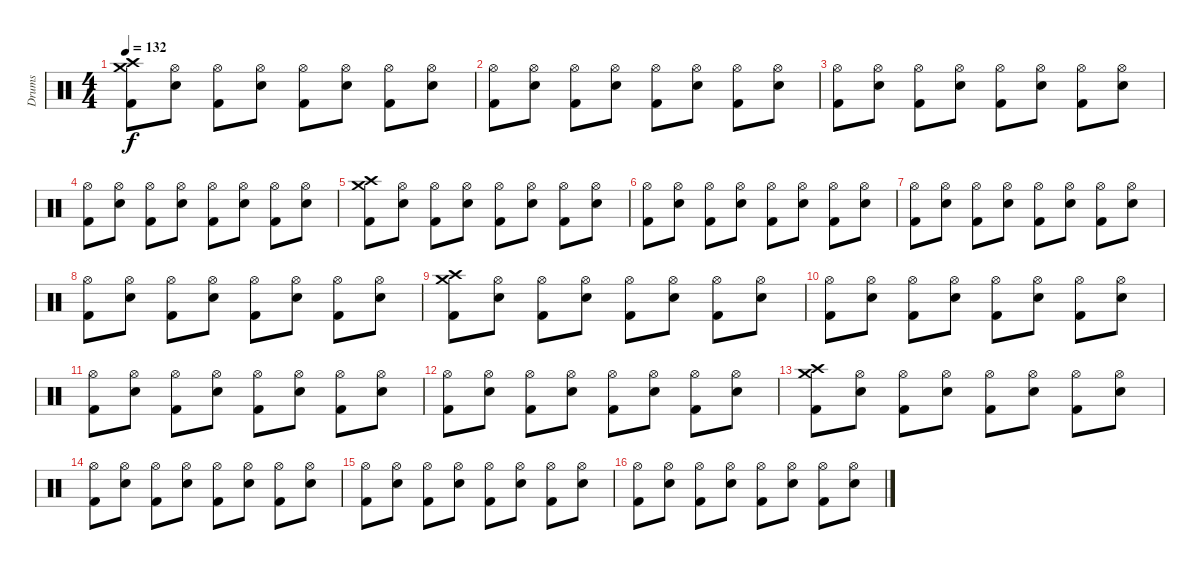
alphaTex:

\track ("Drums" "Drums") {instrument percussion}
\staff {score}
\articulation defaults
\ts (4 4)
\tempo 132
\clef neutral
\ks c
("Crash high (hit)" "Crash medium (hit)" "Kick (hit) 2").8{dy f} ("Hi-Hat (open)" "Electric Snare (hit)").8 ("Hi-Hat (open)" "Kick (hit) 2").8 ("Hi-Hat (open)" "Electric Snare (hit)").8 ("Hi-Hat (open)" "Kick (hit) 2").8 ("Hi-Hat (open)" "Electric Snare (hit)").8 ("Hi-Hat (open)" "Kick (hit) 2").8 ("Hi-Hat (open)" "Electric Snare (hit)").8 |
("Hi-Hat (open)" "Kick (hit) 2").8 ("Hi-Hat (open)" "Electric Snare (hit)").8 ("Hi-Hat (open)" "Kick (hit) 2").8 ("Hi-Hat (open)" "Electric Snare (hit)").8 ("Hi-Hat (open)" "Kick (hit) 2").8 ("Hi-Hat (open)" "Electric Snare (hit)").8 ("Hi-Hat (open)" "Kick (hit) 2").8 ("Hi-Hat (open)" "Electric Snare (hit)").8 |
("Hi-Hat (open)" "Kick (hit) 2").8 ("Hi-Hat (open)" "Electric Snare (hit)").8 ("Hi-Hat (open)" "Kick (hit) 2").8 ("Hi-Hat (open)" "Electric Snare (hit)").8 ("Hi-Hat (open)" "Kick (hit) 2").8 ("Hi-Hat (open)" "Electric Snare (hit)").8 ("Hi-Hat (open)" "Kick (hit) 2").8 ("Hi-Hat (open)" "Electric Snare (hit)").8 |
("Hi-Hat (open)" "Kick (hit) 2").8 ("Hi-Hat (open)" "Electric Snare (hit)").8 ("Hi-Hat (open)" "Kick (hit) 2").8 ("Hi-Hat (open)" "Electric Snare (hit)").8 ("Hi-Hat (open)" "Kick (hit) 2").8 ("Hi-Hat (open)" "Electric Snare (hit)").8 ("Hi-Hat (open)" "Kick (hit) 2").8 ("Hi-Hat (open)" "Electric Snare (hit)").8 |
("Crash high (hit)" "Crash medium (hit)" "Kick (hit) 2").8 ("Hi-Hat (open)" "Electric Snare (hit)").8 ("Hi-Hat (open)" "Kick (hit) 2").8 ("Hi-Hat (open)" "Electric Snare (hit)").8 ("Hi-Hat (open)" "Kick (hit) 2").8 ("Hi-Hat (open)" "Electric Snare (hit)").8 ("Hi-Hat (open)" "Kick (hit) 2").8 ("Hi-Hat (open)" "Electric Snare (hit)").8 |
("Hi-Hat (open)" "Kick (hit) 2").8 ("Hi-Hat (open)" "Electric Snare (hit)").8 ("Hi-Hat (open)" "Kick (hit) 2").8 ("Hi-Hat (open)" "Electric Snare (hit)").8 ("Hi-Hat (open)" "Kick (hit) 2").8 ("Hi-Hat (open)" "Electric Snare (hit)").8 ("Hi-Hat (open)" "Kick (hit) 2").8 ("Hi-Hat (open)" "Electric Snare (hit)").8 |
("Hi-Hat (open)" "Kick (hit) 2").8 ("Hi-Hat (open)" "Electric Snare (hit)").8 ("Hi-Hat (open)" "Kick (hit) 2").8 ("Hi-Hat (open)" "Electric Snare (hit)").8 ("Hi-Hat (open)" "Kick (hit) 2").8 ("Hi-Hat (open)" "Electric Snare (hit)").8 ("Hi-Hat (open)" "Kick (hit) 2").8 ("Hi-Hat (open)" "Electric Snare (hit)").8 |
("Hi-Hat (open)" "Kick (hit) 2").8 ("Hi-Hat (open)" "Electric Snare (hit)").8 ("Hi-Hat (open)" "Kick (hit) 2").8 ("Hi-Hat (open)" "Electric Snare (hit)").8 ("Hi-Hat (open)" "Kick (hit) 2").8 ("Hi-Hat (open)" "Electric Snare (hit)").8 ("Hi-Hat (open)" "Kick (hit) 2").8 ("Hi-Hat (open)" "Electric Snare (hit)").8 |
("Crash high (hit)" "Crash medium (hit)" "Kick (hit) 2").8 ("Hi-Hat (open)" "Electric Snare (hit)").8 ("Hi-Hat (open)" "Kick (hit) 2").8 ("Hi-Hat (open)" "Electric Snare (hit)").8 ("Hi-Hat (open)" "Kick (hit) 2").8 ("Hi-Hat (open)" "Electric Snare (hit)").8 ("Hi-Hat (open)" "Kick (hit) 2").8 ("Hi-Hat (open)" "Electric Snare (hit)").8 |
("Hi-Hat (open)" "Kick (hit) 2").8 ("Hi-Hat (open)" "Electric Snare (hit)").8 ("Hi-Hat (open)" "Kick (hit) 2").8 ("Hi-Hat (open)" "Electric Snare (hit)").8 ("Hi-Hat (open)" "Kick (hit) 2").8 ("Hi-Hat (open)" "Electric Snare (hit)").8 ("Hi-Hat (open)" "Kick (hit) 2").8 ("Hi-Hat (open)" "Electric Snare (hit)").8 |
("Hi-Hat (open)" "Kick (hit) 2").8 ("Hi-Hat (open)" "Electric Snare (hit)").8 ("Hi-Hat (open)" "Kick (hit) 2").8 ("Hi-Hat (open)" "Electric Snare (hit)").8 ("Hi-Hat (open)" "Kick (hit) 2").8 ("Hi-Hat (open)" "Electric Snare (hit)").8 ("Hi-Hat (open)" "Kick (hit) 2").8 ("Hi-Hat (open)" "Electric Snare (hit)").8 |
("Hi-Hat (open)" "Kick (hit) 2").8 ("Hi-Hat (open)" "Electric Snare (hit)").8 ("Hi-Hat (open)" "Kick (hit) 2").8 ("Hi-Hat (open)" "Electric Snare (hit)").8 ("Hi-Hat (open)" "Kick (hit) 2").8 ("Hi-Hat (open)" "Electric Snare (hit)").8 ("Hi-Hat (open)" "Kick (hit) 2").8 ("Hi-Hat (open)" "Electric Snare (hit)").8 |
("Crash high (hit)" "Crash medium (hit)" "Kick (hit) 2").8 ("Hi-Hat (open)" "Electric Snare (hit)").8 ("Hi-Hat (open)" "Kick (hit) 2").8 ("Hi-Hat (open)" "Electric Snare (hit)").8 ("Hi-Hat (open)" "Kick (hit) 2").8 ("Hi-Hat (open)" "Electric Snare (hit)").8 ("Hi-Hat (open)" "Kick (hit) 2").8 ("Hi-Hat (open)" "Electric Snare (hit)").8 |
("Hi-Hat (open)" "Kick (hit) 2").8 ("Hi-Hat (open)" "Electric Snare (hit)").8 ("Hi-Hat (open)" "Kick (hit) 2").8 ("Hi-Hat (open)" "Electric Snare (hit)").8 ("Hi-Hat (open)" "Kick (hit) 2").8 ("Hi-Hat (open)" "Electric Snare (hit)").8 ("Hi-Hat (open)" "Kick (hit) 2").8 ("Hi-Hat (open)" "Electric Snare (hit)").8 |
("Hi-Hat (open)" "Kick (hit) 2").8 ("Hi-Hat (open)" "Electric Snare (hit)").8 ("Hi-Hat (open)" "Kick (hit) 2").8 ("Hi-Hat (open)" "Electric Snare (hit)").8 ("Hi-Hat (open)" "Kick (hit) 2").8 ("Hi-Hat (open)" "Electric Snare (hit)").8 ("Hi-Hat (open)" "Kick (hit) 2").8 ("Hi-Hat (open)" "Electric Snare (hit)").8 |
("Hi-Hat (open)" "Kick (hit) 2").8 ("Hi-Hat (open)" "Electric Snare (hit)").8 ("Hi-Hat (open)" "Kick (hit) 2").8 ("Hi-Hat (open)" "Electric Snare (hit)").8 ("Hi-Hat (open)" "Kick (hit) 2").8 ("Hi-Hat (open)" "Electric Snare (hit)").8 ("Hi-Hat (open)" "Kick (hit) 2").8 ("Hi-Hat (open)" "Electric Snare (hit)").8
